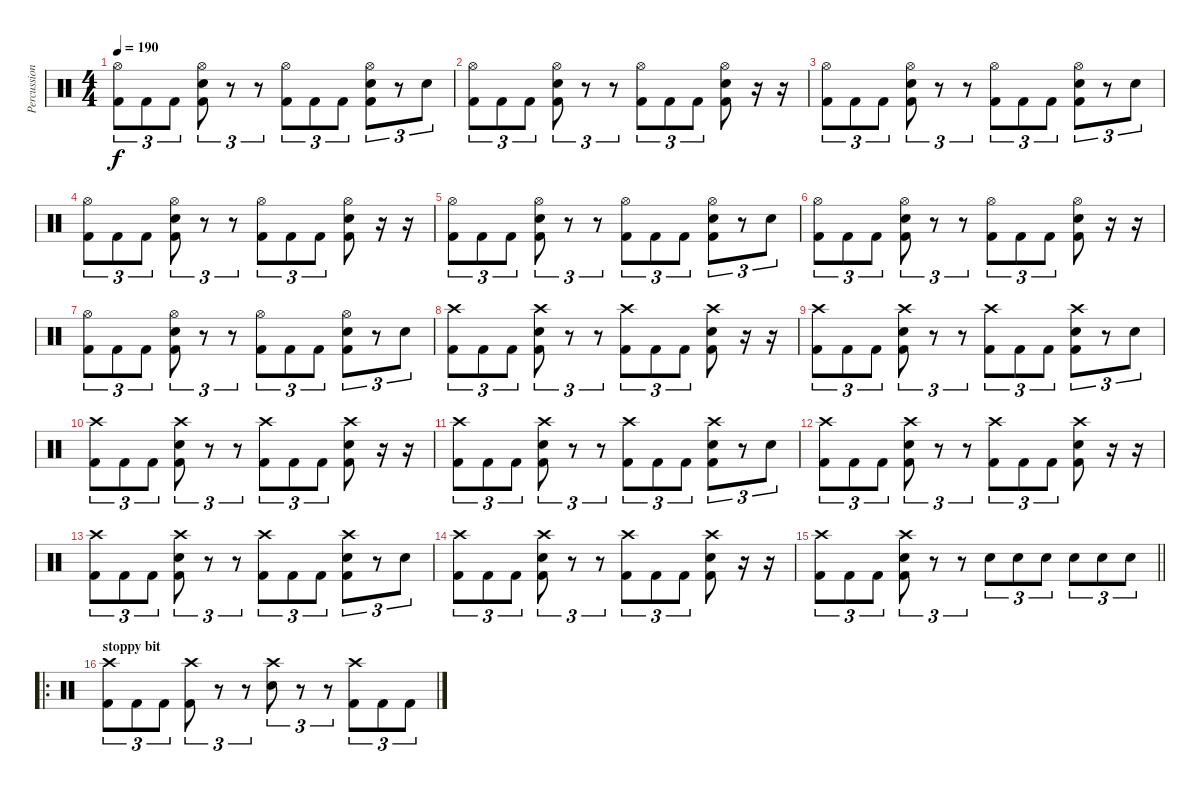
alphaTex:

\track ("Percussion" "Percussion") {instrument percussion}
\staff {score}
\articulation defaults
\ts (4 4)
\tempo 190
\clef neutral
\ks c
("Hi-Hat (open)" "Kick (hit) 2").8{tu (3 2) dy f} "Kick (hit) 2".8{tu (3 2)} "Kick (hit) 2".8{tu (3 2)} ("Hi-Hat (open)" "Electric Snare (hit)" "Kick (hit) 2").8{tu (3 2)} r.8{tu (3 2)} r.8{tu (3 2)} ("Hi-Hat (open)" "Kick (hit) 2").8{tu (3 2)} "Kick (hit) 2".8{tu (3 2)} "Kick (hit) 2".8{tu (3 2)} ("Hi-Hat (open)" "Electric Snare (hit)" "Kick (hit) 2").8{tu (3 2)} r.8{tu (3 2)} "Electric Snare (hit)".8{tu (3 2)} |
("Hi-Hat (open)" "Kick (hit) 2").8{tu (3 2)} "Kick (hit) 2".8{tu (3 2)} "Kick (hit) 2".8{tu (3 2)} ("Hi-Hat (open)" "Electric Snare (hit)" "Kick (hit) 2").8{tu (3 2)} r.8{tu (3 2)} r.8{tu (3 2)} ("Hi-Hat (open)" "Kick (hit) 2").8{tu (3 2)} "Kick (hit) 2".8{tu (3 2)} "Kick (hit) 2".8{tu (3 2)} ("Hi-Hat (open)" "Electric Snare (hit)" "Kick (hit) 2").8 r.16 r.16 |
("Hi-Hat (open)" "Kick (hit) 2").8{tu (3 2)} "Kick (hit) 2".8{tu (3 2)} "Kick (hit) 2".8{tu (3 2)} ("Hi-Hat (open)" "Electric Snare (hit)" "Kick (hit) 2").8{tu (3 2)} r.8{tu (3 2)} r.8{tu (3 2)} ("Hi-Hat (open)" "Kick (hit) 2").8{tu (3 2)} "Kick (hit) 2".8{tu (3 2)} "Kick (hit) 2".8{tu (3 2)} ("Hi-Hat (open)" "Electric Snare (hit)" "Kick (hit) 2").8{tu (3 2)} r.8{tu (3 2)} "Electric Snare (hit)".8{tu (3 2)} |
("Hi-Hat (open)" "Kick (hit) 2").8{tu (3 2)} "Kick (hit) 2".8{tu (3 2)} "Kick (hit) 2".8{tu (3 2)} ("Hi-Hat (open)" "Electric Snare (hit)" "Kick (hit) 2").8{tu (3 2)} r.8{tu (3 2)} r.8{tu (3 2)} ("Hi-Hat (open)" "Kick (hit) 2").8{tu (3 2)} "Kick (hit) 2".8{tu (3 2)} "Kick (hit) 2".8{tu (3 2)} ("Hi-Hat (open)" "Electric Snare (hit)" "Kick (hit) 2").8 r.16 r.16 |
("Hi-Hat (open)" "Kick (hit) 2").8{tu (3 2)} "Kick (hit) 2".8{tu (3 2)} "Kick (hit) 2".8{tu (3 2)} ("Hi-Hat (open)" "Electric Snare (hit)" "Kick (hit) 2").8{tu (3 2)} r.8{tu (3 2)} r.8{tu (3 2)} ("Hi-Hat (open)" "Kick (hit) 2").8{tu (3 2)} "Kick (hit) 2".8{tu (3 2)} "Kick (hit) 2".8{tu (3 2)} ("Hi-Hat (open)" "Electric Snare (hit)" "Kick (hit) 2").8{tu (3 2)} r.8{tu (3 2)} "Electric Snare (hit)".8{tu (3 2)} |
("Hi-Hat (open)" "Kick (hit) 2").8{tu (3 2)} "Kick (hit) 2".8{tu (3 2)} "Kick (hit) 2".8{tu (3 2)} ("Hi-Hat (open)" "Electric Snare (hit)" "Kick (hit) 2").8{tu (3 2)} r.8{tu (3 2)} r.8{tu (3 2)} ("Hi-Hat (open)" "Kick (hit) 2").8{tu (3 2)} "Kick (hit) 2".8{tu (3 2)} "Kick (hit) 2".8{tu (3 2)} ("Hi-Hat (open)" "Electric Snare (hit)" "Kick (hit) 2").8 r.16 r.16 |
("Hi-Hat (open)" "Kick (hit) 2").8{tu (3 2)} "Kick (hit) 2".8{tu (3 2)} "Kick (hit) 2".8{tu (3 2)} ("Hi-Hat (open)" "Electric Snare (hit)" "Kick (hit) 2").8{tu (3 2)} r.8{tu (3 2)} r.8{tu (3 2)} ("Hi-Hat (open)" "Kick (hit) 2").8{tu (3 2)} "Kick (hit) 2".8{tu (3 2)} "Kick (hit) 2".8{tu (3 2)} ("Hi-Hat (open)" "Electric Snare (hit)" "Kick (hit) 2").8{tu (3 2)} r.8{tu (3 2)} "Electric Snare (hit)".8{tu (3 2)} |
("Crash high (hit)" "Kick (hit) 2").8{tu (3 2)} "Kick (hit) 2".8{tu (3 2)} "Kick (hit) 2".8{tu (3 2)} ("Crash high (hit)" "Electric Snare (hit)" "Kick (hit) 2").8{tu (3 2)} r.8{tu (3 2)} r.8{tu (3 2)} ("Crash high (hit)" "Kick (hit) 2").8{tu (3 2)} "Kick (hit) 2".8{tu (3 2)} "Kick (hit) 2".8{tu (3 2)} ("Crash high (hit)" "Electric Snare (hit)" "Kick (hit) 2").8 r.16 r.16 |
("Crash high (hit)" "Kick (hit) 2").8{tu (3 2)} "Kick (hit) 2".8{tu (3 2)} "Kick (hit) 2".8{tu (3 2)} ("Crash high (hit)" "Electric Snare (hit)" "Kick (hit) 2").8{tu (3 2)} r.8{tu (3 2)} r.8{tu (3 2)} ("Crash high (hit)" "Kick (hit) 2").8{tu (3 2)} "Kick (hit) 2".8{tu (3 2)} "Kick (hit) 2".8{tu (3 2)} ("Crash high (hit)" "Electric Snare (hit)" "Kick (hit) 2").8{tu (3 2)} r.8{tu (3 2)} "Electric Snare (hit)".8{tu (3 2)} |
("Crash high (hit)" "Kick (hit) 2").8{tu (3 2)} "Kick (hit) 2".8{tu (3 2)} "Kick (hit) 2".8{tu (3 2)} ("Crash high (hit)" "Electric Snare (hit)" "Kick (hit) 2").8{tu (3 2)} r.8{tu (3 2)} r.8{tu (3 2)} ("Crash high (hit)" "Kick (hit) 2").8{tu (3 2)} "Kick (hit) 2".8{tu (3 2)} "Kick (hit) 2".8{tu (3 2)} ("Crash high (hit)" "Electric Snare (hit)" "Kick (hit) 2").8 r.16 r.16 |
("Crash high (hit)" "Kick (hit) 2").8{tu (3 2)} "Kick (hit) 2".8{tu (3 2)} "Kick (hit) 2".8{tu (3 2)} ("Crash high (hit)" "Electric Snare (hit)" "Kick (hit) 2").8{tu (3 2)} r.8{tu (3 2)} r.8{tu (3 2)} ("Crash high (hit)" "Kick (hit) 2").8{tu (3 2)} "Kick (hit) 2".8{tu (3 2)} "Kick (hit) 2".8{tu (3 2)} ("Crash high (hit)" "Electric Snare (hit)" "Kick (hit) 2").8{tu (3 2)} r.8{tu (3 2)} "Electric Snare (hit)".8{tu (3 2)} |
("Crash high (hit)" "Kick (hit) 2").8{tu (3 2)} "Kick (hit) 2".8{tu (3 2)} "Kick (hit) 2".8{tu (3 2)} ("Crash high (hit)" "Electric Snare (hit)" "Kick (hit) 2").8{tu (3 2)} r.8{tu (3 2)} r.8{tu (3 2)} ("Crash high (hit)" "Kick (hit) 2").8{tu (3 2)} "Kick (hit) 2".8{tu (3 2)} "Kick (hit) 2".8{tu (3 2)} ("Crash high (hit)" "Electric Snare (hit)" "Kick (hit) 2").8 r.16 r.16 |
("Crash high (hit)" "Kick (hit) 2").8{tu (3 2)} "Kick (hit) 2".8{tu (3 2)} "Kick (hit) 2".8{tu (3 2)} ("Crash high (hit)" "Electric Snare (hit)" "Kick (hit) 2").8{tu (3 2)} r.8{tu (3 2)} r.8{tu (3 2)} ("Crash high (hit)" "Kick (hit) 2").8{tu (3 2)} "Kick (hit) 2".8{tu (3 2)} "Kick (hit) 2".8{tu (3 2)} ("Crash high (hit)" "Electric Snare (hit)" "Kick (hit) 2").8{tu (3 2)} r.8{tu (3 2)} "Electric Snare (hit)".8{tu (3 2)} |
("Crash high (hit)" "Kick (hit) 2").8{tu (3 2)} "Kick (hit) 2".8{tu (3 2)} "Kick (hit) 2".8{tu (3 2)} ("Crash high (hit)" "Electric Snare (hit)" "Kick (hit) 2").8{tu (3 2)} r.8{tu (3 2)} r.8{tu (3 2)} ("Crash high (hit)" "Kick (hit) 2").8{tu (3 2)} "Kick (hit) 2".8{tu (3 2)} "Kick (hit) 2".8{tu (3 2)} ("Crash high (hit)" "Electric Snare (hit)" "Kick (hit) 2").8 r.16 r.16 |
\barLineRight lightlight
("Crash high (hit)" "Kick (hit) 2").8{tu (3 2)} "Kick (hit) 2".8{tu (3 2)} "Kick (hit) 2".8{tu (3 2)} ("Crash high (hit)" "Electric Snare (hit)" "Kick (hit) 2").8{tu (3 2)} r.8{tu (3 2)} r.8{tu (3 2)} "Electric Snare (hit)".8{tu (3 2)} "Electric Snare (hit)".8{tu (3 2)} "Electric Snare (hit)".8{tu (3 2)} "Electric Snare (hit)".8{tu (3 2)} "Electric Snare (hit)".8{tu (3 2)} "Electric Snare (hit)".8{tu (3 2)} |
\ro
\section ("" "stoppy bit")
("Crash high (hit)" "Kick (hit) 2").8{tu (3 2)} "Kick (hit) 2".8{tu (3 2)} "Kick (hit) 2".8{tu (3 2)} ("Crash high (hit)" "Kick (hit) 2").8{tu (3 2)} r.8{tu (3 2)} r.8{tu (3 2)} ("Crash high (hit)" "Electric Snare (hit)").8{tu (3 2)} r.8{tu (3 2)} r.8{tu (3 2)} ("Crash high (hit)" "Kick (hit) 2").8{tu (3 2)} "Kick (hit) 2".8{tu (3 2)} "Kick (hit) 2".8{tu (3 2)}
